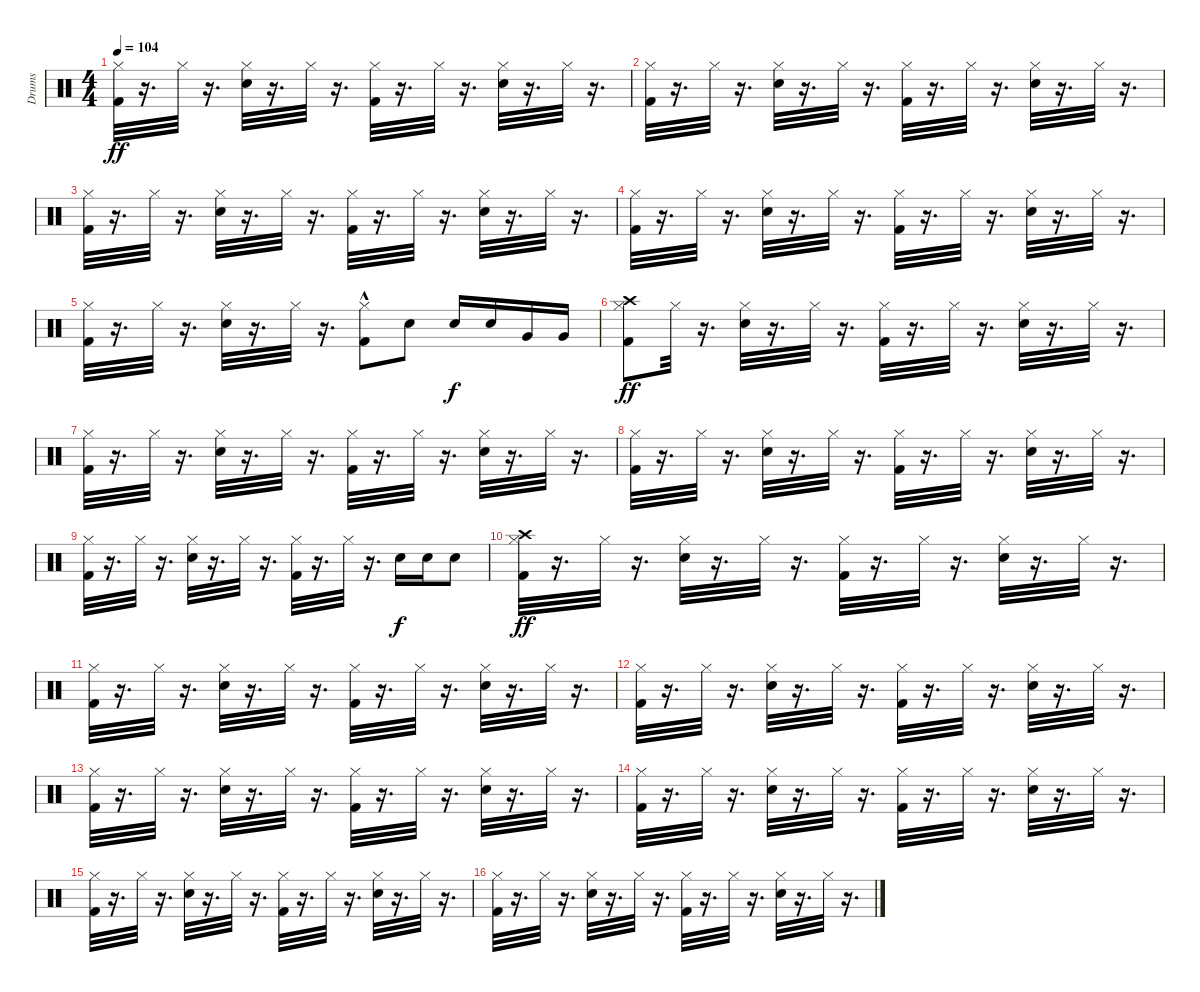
\track ("Drums" "Drums") {instrument percussion}
\staff {score}
\articulation defaults
\ts (4 4)
\tempo 104
\clef neutral
\ks c
("Kick (hit) 2" "Hi-Hat (closed)").32{dy ff volume 12 balance 8} r.16{d} "Hi-Hat (closed)".32 r.16{d} ("Snare (hit) 2" "Hi-Hat (closed)").32 r.16{d} "Hi-Hat (closed)".32 r.16{d} ("Kick (hit) 2" "Hi-Hat (closed)").32 r.16{d} "Hi-Hat (closed)".32 r.16{d} ("Snare (hit) 2" "Hi-Hat (closed)").32 r.16{d} "Hi-Hat (closed)".32 r.16{d} |
("Kick (hit) 2" "Hi-Hat (closed)").32{volume 12 balance 8} r.16{d} "Hi-Hat (closed)".32 r.16{d} ("Snare (hit) 2" "Hi-Hat (closed)").32 r.16{d} "Hi-Hat (closed)".32 r.16{d} ("Kick (hit) 2" "Hi-Hat (closed)").32 r.16{d} "Hi-Hat (closed)".32 r.16{d} ("Snare (hit) 2" "Hi-Hat (closed)").32 r.16{d} "Hi-Hat (closed)".32 r.16{d} |
("Kick (hit) 2" "Hi-Hat (closed)").32{volume 12 balance 8} r.16{d} "Hi-Hat (closed)".32 r.16{d} ("Snare (hit) 2" "Hi-Hat (closed)").32 r.16{d} "Hi-Hat (closed)".32 r.16{d} ("Kick (hit) 2" "Hi-Hat (closed)").32 r.16{d} "Hi-Hat (closed)".32 r.16{d} ("Snare (hit) 2" "Hi-Hat (closed)").32 r.16{d} "Hi-Hat (closed)".32 r.16{d} |
("Kick (hit) 2" "Hi-Hat (closed)").32{volume 12 balance 8} r.16{d} "Hi-Hat (closed)".32 r.16{d} ("Snare (hit) 2" "Hi-Hat (closed)").32 r.16{d} "Hi-Hat (closed)".32 r.16{d} ("Kick (hit) 2" "Hi-Hat (closed)").32 r.16{d} "Hi-Hat (closed)".32 r.16{d} ("Snare (hit) 2" "Hi-Hat (closed)").32 r.16{d} "Hi-Hat (closed)".32 r.16{d} |
("Kick (hit) 2" "Hi-Hat (closed)").32{volume 12 balance 8} r.16{d} "Hi-Hat (closed)".32 r.16{d} ("Snare (hit) 2" "Hi-Hat (closed)").32 r.16{d} "Hi-Hat (closed)".32 r.16{d} ("Kick (hit) 2"{hac} "Hi-Hat (closed)"{hac}).8 "Snare (hit) 2".8 "Snare (hit) 2".16{dy f} "Snare (hit) 2".16 "Very Low Tom (hit)".16 "Very Low Tom (hit)".16 |
("Kick (hit) 2" "Hi-Hat (closed)" "Crash high (hit)").8{dy ff volume 12 balance 8} "Hi-Hat (closed)".32 r.16{d} ("Snare (hit) 2" "Hi-Hat (closed)").32 r.16{d} "Hi-Hat (closed)".32 r.16{d} ("Kick (hit) 2" "Hi-Hat (closed)").32 r.16{d} "Hi-Hat (closed)".32 r.16{d} ("Snare (hit) 2" "Hi-Hat (closed)").32 r.16{d} "Hi-Hat (closed)".32 r.16{d} |
("Kick (hit) 2" "Hi-Hat (closed)").32{volume 12 balance 8} r.16{d} "Hi-Hat (closed)".32 r.16{d} ("Snare (hit) 2" "Hi-Hat (closed)").32 r.16{d} "Hi-Hat (closed)".32 r.16{d} ("Kick (hit) 2" "Hi-Hat (closed)").32 r.16{d} "Hi-Hat (closed)".32 r.16{d} ("Snare (hit) 2" "Hi-Hat (closed)").32 r.16{d} "Hi-Hat (closed)".32 r.16{d} |
("Kick (hit) 2" "Hi-Hat (closed)").32{volume 12 balance 8} r.16{d} "Hi-Hat (closed)".32 r.16{d} ("Snare (hit) 2" "Hi-Hat (closed)").32 r.16{d} "Hi-Hat (closed)".32 r.16{d} ("Kick (hit) 2" "Hi-Hat (closed)").32 r.16{d} "Hi-Hat (closed)".32 r.16{d} ("Snare (hit) 2" "Hi-Hat (closed)").32 r.16{d} "Hi-Hat (closed)".32 r.16{d} |
("Kick (hit) 2" "Hi-Hat (closed)").32{volume 12 balance 8} r.16{d} "Hi-Hat (closed)".32 r.16{d} ("Snare (hit) 2" "Hi-Hat (closed)").32 r.16{d} "Hi-Hat (closed)".32 r.16{d} ("Kick (hit) 2" "Hi-Hat (closed)").32 r.16{d} "Hi-Hat (closed)".32 r.16{d} "Snare (hit) 2".16{dy f} "Snare (hit) 2".16 "Snare (hit) 2".8 |
("Kick (hit) 2" "Hi-Hat (closed)" "Crash high (hit)").32{dy ff volume 12 balance 8} r.16{d} "Hi-Hat (closed)".32 r.16{d} ("Snare (hit) 2" "Hi-Hat (closed)").32 r.16{d} "Hi-Hat (closed)".32 r.16{d} ("Kick (hit) 2" "Hi-Hat (closed)").32 r.16{d} "Hi-Hat (closed)".32 r.16{d} ("Snare (hit) 2" "Hi-Hat (closed)").32 r.16{d} "Hi-Hat (closed)".32 r.16{d} |
("Kick (hit) 2" "Hi-Hat (closed)").32{volume 12 balance 8} r.16{d} "Hi-Hat (closed)".32 r.16{d} ("Snare (hit) 2" "Hi-Hat (closed)").32 r.16{d} "Hi-Hat (closed)".32 r.16{d} ("Kick (hit) 2" "Hi-Hat (closed)").32 r.16{d} "Hi-Hat (closed)".32 r.16{d} ("Snare (hit) 2" "Hi-Hat (closed)").32 r.16{d} "Hi-Hat (closed)".32 r.16{d} |
("Kick (hit) 2" "Hi-Hat (closed)").32{volume 12 balance 8} r.16{d} "Hi-Hat (closed)".32 r.16{d} ("Snare (hit) 2" "Hi-Hat (closed)").32 r.16{d} "Hi-Hat (closed)".32 r.16{d} ("Kick (hit) 2" "Hi-Hat (closed)").32 r.16{d} "Hi-Hat (closed)".32 r.16{d} ("Snare (hit) 2" "Hi-Hat (closed)").32 r.16{d} "Hi-Hat (closed)".32 r.16{d} |
("Kick (hit) 2" "Hi-Hat (closed)").32{volume 12 balance 8} r.16{d} "Hi-Hat (closed)".32 r.16{d} ("Snare (hit) 2" "Hi-Hat (closed)").32 r.16{d} "Hi-Hat (closed)".32 r.16{d} ("Kick (hit) 2" "Hi-Hat (closed)").32 r.16{d} "Hi-Hat (closed)".32 r.16{d} ("Snare (hit) 2" "Hi-Hat (closed)").32 r.16{d} "Hi-Hat (closed)".32 r.16{d} |
("Kick (hit) 2" "Hi-Hat (closed)").32{volume 12 balance 8} r.16{d} "Hi-Hat (closed)".32 r.16{d} ("Snare (hit) 2" "Hi-Hat (closed)").32 r.16{d} "Hi-Hat (closed)".32 r.16{d} ("Kick (hit) 2" "Hi-Hat (closed)").32 r.16{d} "Hi-Hat (closed)".32 r.16{d} ("Snare (hit) 2" "Hi-Hat (closed)").32 r.16{d} "Hi-Hat (closed)".32 r.16{d} |
("Kick (hit) 2" "Hi-Hat (closed)").32{volume 12 balance 8} r.16{d} "Hi-Hat (closed)".32 r.16{d} ("Snare (hit) 2" "Hi-Hat (closed)").32 r.16{d} "Hi-Hat (closed)".32 r.16{d} ("Kick (hit) 2" "Hi-Hat (closed)").32 r.16{d} "Hi-Hat (closed)".32 r.16{d} ("Snare (hit) 2" "Hi-Hat (closed)").32 r.16{d} "Hi-Hat (closed)".32 r.16{d} |
("Kick (hit) 2" "Hi-Hat (closed)").32{volume 12 balance 8} r.16{d} "Hi-Hat (closed)".32 r.16{d} ("Snare (hit) 2" "Hi-Hat (closed)").32 r.16{d} "Hi-Hat (closed)".32 r.16{d} ("Kick (hit) 2" "Hi-Hat (closed)").32 r.16{d} "Hi-Hat (closed)".32 r.16{d} ("Snare (hit) 2" "Hi-Hat (closed)").32 r.16{d} "Hi-Hat (closed)".32 r.16{d}
